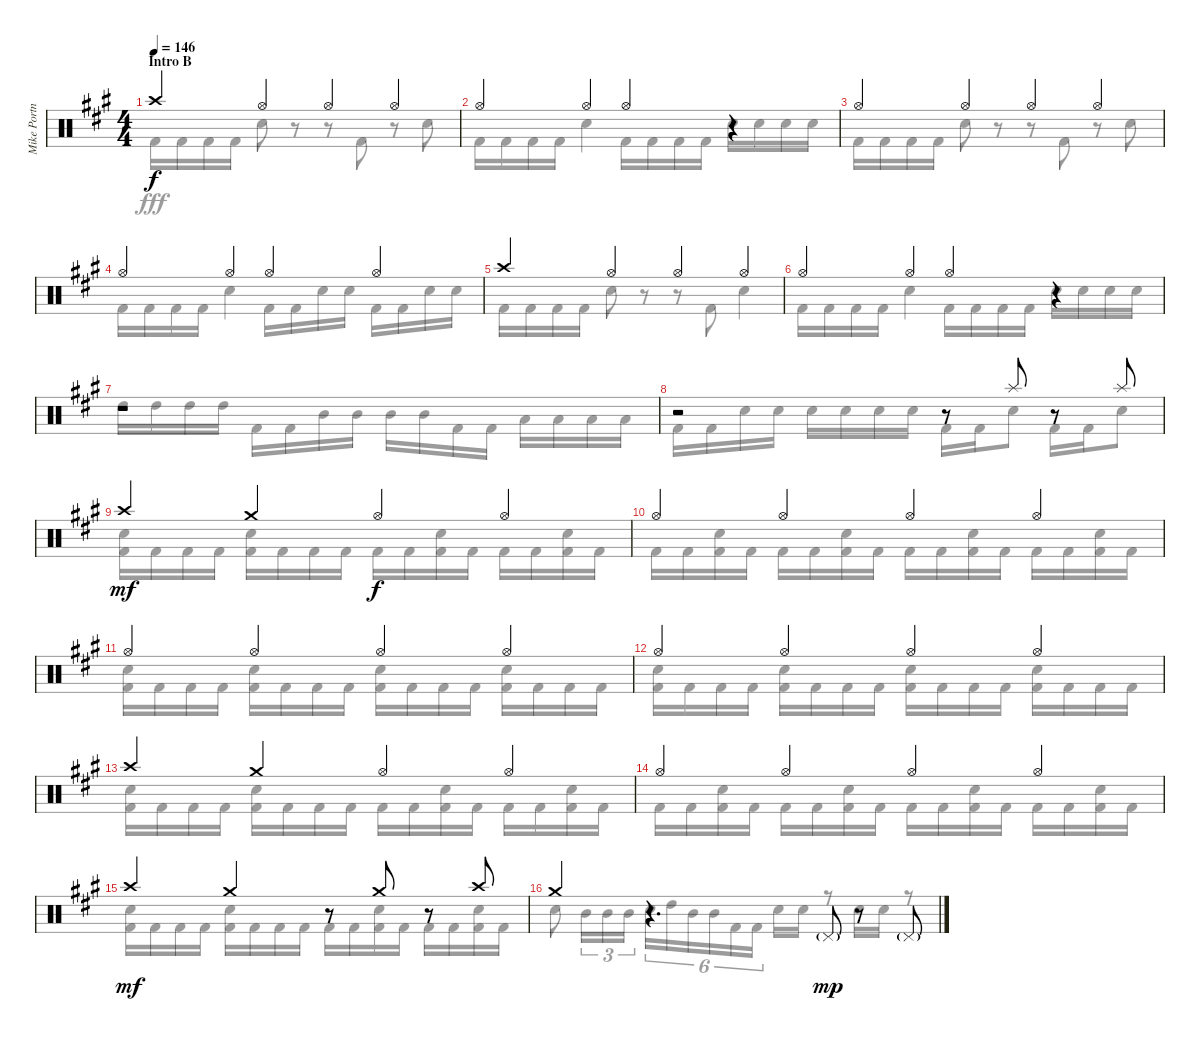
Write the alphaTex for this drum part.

\track ("Mike Portnoy Drums" "Mike Portn") {instrument percussion}
\staff {score}
\articulation defaults
\voice
\ts (4 4)
\section ("" "Intro B")
\tempo 146
\clef neutral
\ks f#minor "Crash high (hit)".4{dy f} "Hi-Hat (open)".4 "Hi-Hat (open)".4 "Hi-Hat (open)".4
|
"Hi-Hat (open)".4 "Hi-Hat (open)".4 "Hi-Hat (open)".4 r.4 |
"Hi-Hat (open)".4 "Hi-Hat (open)".4 "Hi-Hat (open)".4 "Hi-Hat (open)".4 |
"Hi-Hat (open)".4 "Hi-Hat (open)".4 "Hi-Hat (open)".4 "Hi-Hat (open)".4 |
"Crash high (hit)".4 "Hi-Hat (open)".4 "Hi-Hat (open)".4 "Hi-Hat (open)".4 |
"Hi-Hat (open)".4 "Hi-Hat (open)".4 "Hi-Hat (open)".4 r.4 |
r.1 |
r.2 r.8 "Splash (hit)".8 r.8 "Splash (hit)".8 |
"Crash high (hit)".4{dy mf} "Crash medium (hit)".4 "Hi-Hat (open)".4{dy f} "Hi-Hat (open)".4 |
"Hi-Hat (open)".4 "Hi-Hat (open)".4 "Hi-Hat (open)".4 "Hi-Hat (open)".4 |
"Hi-Hat (open)".4 "Hi-Hat (open)".4 "Hi-Hat (open)".4 "Hi-Hat (open)".4 |
"Hi-Hat (open)".4 "Hi-Hat (open)".4 "Hi-Hat (open)".4 "Hi-Hat (open)".4 |
"Crash high (hit)".4 "Crash medium (hit)".4 "Hi-Hat (open)".4 "Hi-Hat (open)".4 |
"Hi-Hat (open)".4 "Hi-Hat (open)".4 "Hi-Hat (open)".4 "Hi-Hat (open)".4 |
"Crash high (hit)".4{dy mf} "Crash medium (hit)".4 r.8 "Crash medium (hit)".8 r.8 "Crash high (hit)".8 |
"Crash medium (hit)".4 r.4{d} "Pedal Hi-Hat (hit)"{g}.8{dy mp} r.8 "Pedal Hi-Hat (hit)"{g}.8
\voice
\clef neutral
\ottava regular
\simile none
\ks f#minor "Kick (hit) 2".16{dy fff} "Kick (hit) 2".16 "Kick (hit) 2".16 "Kick (hit) 2".16 "Snare (hit) 2".8
r.8 r.8 "Kick (hit) 2".8 r.8 "Snare (hit) 2".8 |
"Kick (hit) 2".16 "Kick (hit) 2".16 "Kick (hit) 2".16 "Kick (hit) 2".16 "Snare (hit) 2".4 "Kick (hit) 2".16 "Kick (hit) 2".16 "Kick (hit) 2".16 "Kick (hit) 2".16 "Snare (hit) 2".16 "Snare (hit) 2".16 "Snare (hit) 2".16 "Snare (hit) 2".16 |
"Kick (hit) 2".16 "Kick (hit) 2".16 "Kick (hit) 2".16 "Kick (hit) 2".16 "Snare (hit) 2".8 r.8 r.8 "Kick (hit) 2".8 r.8 "Snare (hit) 2".8 |
"Kick (hit) 2".16 "Kick (hit) 2".16 "Kick (hit) 2".16 "Kick (hit) 2".16 "Snare (hit) 2".4 "Kick (hit) 2".16 "Kick (hit) 2".16 "Snare (hit) 2".16 "Snare (hit) 2".16 "Kick (hit) 2".16 "Kick (hit) 2".16 "Snare (hit) 2".16 "Snare (hit) 2".16 |
"Kick (hit) 2".16 "Kick (hit) 2".16 "Kick (hit) 2".16 "Kick (hit) 2".16 "Snare (hit) 2".8 r.8 r.8 "Kick (hit) 2".8 "Snare (hit) 2".4 |
"Kick (hit) 2".16 "Kick (hit) 2".16 "Kick (hit) 2".16 "Kick (hit) 2".16 "Snare (hit) 2".4 "Kick (hit) 2".16 "Kick (hit) 2".16 "Kick (hit) 2".16 "Kick (hit) 2".16 "Snare (hit) 2".16 "Snare (hit) 2".16 "Snare (hit) 2".16 "Snare (hit) 2".16 |
"High Tom (hit)".16 "High Tom (hit)".16 "High Tom (hit)".16 "High Tom (hit)".16 "Kick (hit) 2".16 "Kick (hit) 2".16 "Mid Tom (hit)".16 "Mid Tom (hit)".16 "Mid Tom (hit)".16 "Mid Tom (hit)".16 "Kick (hit) 2".16 "Kick (hit) 2".16 "Low Tom (hit)".16 "Low Tom (hit)".16 "Low Tom (hit)".16 "Low Tom (hit)".16 |
"Kick (hit) 2".16 "Kick (hit) 2".16 "Snare (hit) 2".16 "Snare (hit) 2".16 "Snare (hit) 2".16 "Snare (hit) 2".16 "Snare (hit) 2".16 "Snare (hit) 2".16 "Kick (hit) 2".16 "Kick (hit) 2".16 "Snare (hit) 2".8 "Kick (hit) 2".16 "Kick (hit) 2".16 "Snare (hit) 2".8 |
("Snare (hit) 2" "Kick (hit) 2").16 "Kick (hit) 2".16 "Kick (hit) 2".16 "Kick (hit) 2".16 ("Snare (hit) 2" "Kick (hit) 2").16 "Kick (hit) 2".16 "Kick (hit) 2".16 "Kick (hit) 2".16 "Kick (hit) 2".16 "Kick (hit) 2".16 ("Snare (hit) 2" "Kick (hit) 2").16 "Kick (hit) 2".16 "Kick (hit) 2".16 "Kick (hit) 2".16 ("Snare (hit) 2" "Kick (hit) 2").16 "Kick (hit) 2".16 |
"Kick (hit) 2".16 "Kick (hit) 2".16 ("Snare (hit) 2" "Kick (hit) 2").16 "Kick (hit) 2".16 "Kick (hit) 2".16 "Kick (hit) 2".16 ("Snare (hit) 2" "Kick (hit) 2").16 "Kick (hit) 2".16 "Kick (hit) 2".16 "Kick (hit) 2".16 ("Snare (hit) 2" "Kick (hit) 2").16 "Kick (hit) 2".16 "Kick (hit) 2".16 "Kick (hit) 2".16 ("Snare (hit) 2" "Kick (hit) 2").16 "Kick (hit) 2".16 |
("Snare (hit) 2" "Kick (hit) 2").16 "Kick (hit) 2".16 "Kick (hit) 2".16 "Kick (hit) 2".16 ("Snare (hit) 2" "Kick (hit) 2").16 "Kick (hit) 2".16 "Kick (hit) 2".16 "Kick (hit) 2".16 ("Snare (hit) 2" "Kick (hit) 2").16 "Kick (hit) 2".16 "Kick (hit) 2".16 "Kick (hit) 2".16 ("Snare (hit) 2" "Kick (hit) 2").16 "Kick (hit) 2".16 "Kick (hit) 2".16 "Kick (hit) 2".16 |
("Snare (hit) 2" "Kick (hit) 2").16 "Kick (hit) 2".16 "Kick (hit) 2".16 "Kick (hit) 2".16 ("Snare (hit) 2" "Kick (hit) 2").16 "Kick (hit) 2".16 "Kick (hit) 2".16 "Kick (hit) 2".16 ("Snare (hit) 2" "Kick (hit) 2").16 "Kick (hit) 2".16 "Kick (hit) 2".16 "Kick (hit) 2".16 ("Snare (hit) 2" "Kick (hit) 2").16 "Kick (hit) 2".16 "Kick (hit) 2".16 "Kick (hit) 2".16 |
("Snare (hit) 2" "Kick (hit) 2").16 "Kick (hit) 2".16 "Kick (hit) 2".16 "Kick (hit) 2".16 ("Snare (hit) 2" "Kick (hit) 2").16 "Kick (hit) 2".16 "Kick (hit) 2".16 "Kick (hit) 2".16 "Kick (hit) 2".16 "Kick (hit) 2".16 ("Snare (hit) 2" "Kick (hit) 2").16 "Kick (hit) 2".16 "Kick (hit) 2".16 "Kick (hit) 2".16 ("Snare (hit) 2" "Kick (hit) 2").16 "Kick (hit) 2".16 |
"Kick (hit) 2".16 "Kick (hit) 2".16 ("Snare (hit) 2" "Kick (hit) 2").16 "Kick (hit) 2".16 "Kick (hit) 2".16 "Kick (hit) 2".16 ("Snare (hit) 2" "Kick (hit) 2").16 "Kick (hit) 2".16 "Kick (hit) 2".16 "Kick (hit) 2".16 ("Snare (hit) 2" "Kick (hit) 2").16 "Kick (hit) 2".16 "Kick (hit) 2".16 "Kick (hit) 2".16 ("Snare (hit) 2" "Kick (hit) 2").16 "Kick (hit) 2".16 |
("Snare (hit) 2" "Kick (hit) 2").16 "Kick (hit) 2".16 "Kick (hit) 2".16 "Kick (hit) 2".16 ("Snare (hit) 2" "Kick (hit) 2").16 "Kick (hit) 2".16 "Kick (hit) 2".16 "Kick (hit) 2".16 "Kick (hit) 2".16 "Kick (hit) 2".16 ("Snare (hit) 2" "Kick (hit) 2").16 "Kick (hit) 2".16 "Kick (hit) 2".16 "Kick (hit) 2".16 ("Snare (hit) 2" "Kick (hit) 2").16 "Kick (hit) 2".16 |
"Snare (hit) 2".8 "Mid Tom (hit)".16{tu (3 2)} "Mid Tom (hit)".16{tu (3 2)} "Mid Tom (hit)".16{tu (3 2)} "Snare (hit) 2".16{tu (6 4)} "High Tom (hit)".16{tu (6 4)} "Mid Tom (hit)".16{tu (6 4)} "Mid Tom (hit)".16{tu (6 4)} "Kick (hit) 2".16{tu (6 4)} "Kick (hit) 2".16{tu (6 4)} "Snare (hit) 2".16 "Snare (hit) 2".16 r.8 "Snare (hit) 2".16 "Snare (hit) 2".16 r.8
